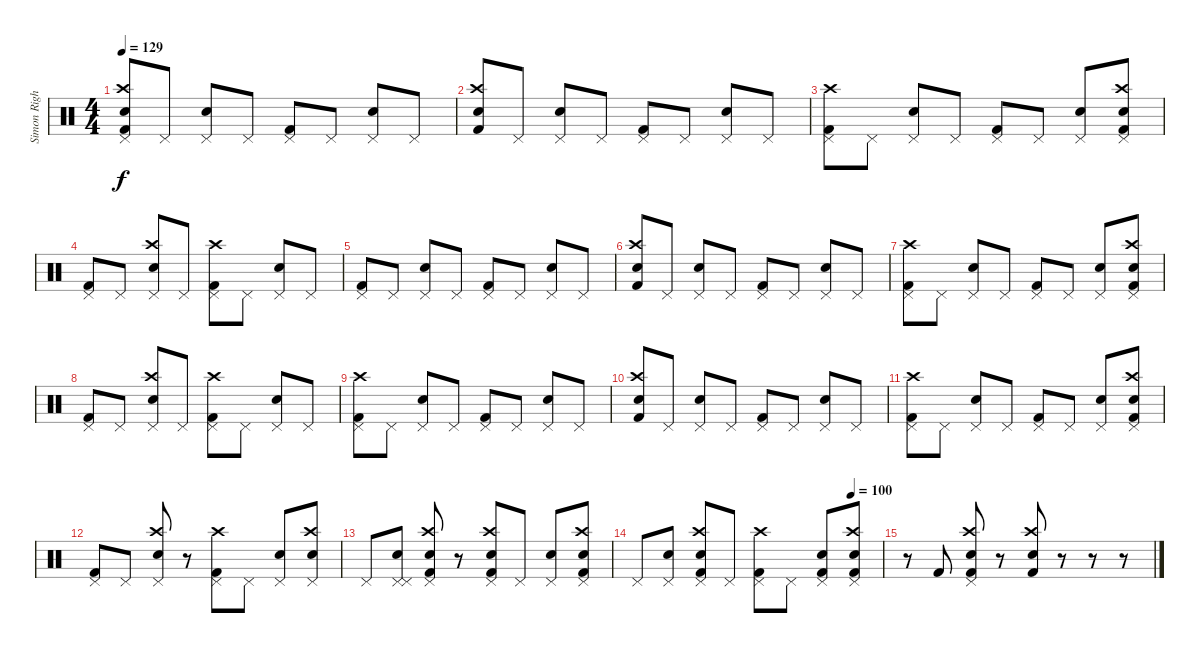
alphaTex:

\track ("Simon Right" "Simon Righ") {instrument percussion}
\staff {score}
\articulation defaults
\ts (4 4)
\tempo 129
\clef neutral
\ks c
("Snare (hit) 2" "Crash high (hit)" "Pedal Hi-Hat (hit)" "Kick (hit) 2").8{dy f} "Pedal Hi-Hat (hit)".8 ("Snare (hit) 2" "Pedal Hi-Hat (hit)").8 "Pedal Hi-Hat (hit)".8 ("Pedal Hi-Hat (hit)" "Kick (hit) 2").8 "Pedal Hi-Hat (hit)".8 ("Snare (hit) 2" "Pedal Hi-Hat (hit)").8 "Pedal Hi-Hat (hit)".8 |
("Crash high (hit)" "Snare (hit) 2" "Kick (hit) 2").8 "Pedal Hi-Hat (hit)".8 ("Snare (hit) 2" "Pedal Hi-Hat (hit)").8 "Pedal Hi-Hat (hit)".8 ("Kick (hit) 2" "Pedal Hi-Hat (hit)").8 "Pedal Hi-Hat (hit)".8 ("Pedal Hi-Hat (hit)" "Snare (hit) 2").8 "Pedal Hi-Hat (hit)".8 |
("Crash high (hit)" "Pedal Hi-Hat (hit)" "Kick (hit) 2").8 "Pedal Hi-Hat (hit)".8 ("Snare (hit) 2" "Pedal Hi-Hat (hit)").8 "Pedal Hi-Hat (hit)".8 ("Pedal Hi-Hat (hit)" "Kick (hit) 2").8 "Pedal Hi-Hat (hit)".8 ("Snare (hit) 2" "Pedal Hi-Hat (hit)").8 ("Kick (hit) 2" "Snare (hit) 2" "Crash high (hit)" "Pedal Hi-Hat (hit)").8 |
("Pedal Hi-Hat (hit)" "Kick (hit) 2").8 "Pedal Hi-Hat (hit)".8 ("Crash high (hit)" "Snare (hit) 2" "Pedal Hi-Hat (hit)").8 "Pedal Hi-Hat (hit)".8 ("Crash high (hit)" "Pedal Hi-Hat (hit)" "Kick (hit) 2").8 "Pedal Hi-Hat (hit)".8 ("Snare (hit) 2" "Pedal Hi-Hat (hit)").8 "Pedal Hi-Hat (hit)".8 |
("Pedal Hi-Hat (hit)" "Kick (hit) 2").8 "Pedal Hi-Hat (hit)".8 ("Snare (hit) 2" "Pedal Hi-Hat (hit)").8 "Pedal Hi-Hat (hit)".8 ("Pedal Hi-Hat (hit)" "Kick (hit) 2").8 "Pedal Hi-Hat (hit)".8 ("Snare (hit) 2" "Pedal Hi-Hat (hit)").8 "Pedal Hi-Hat (hit)".8 |
("Crash high (hit)" "Snare (hit) 2" "Kick (hit) 2").8 "Pedal Hi-Hat (hit)".8 ("Snare (hit) 2" "Pedal Hi-Hat (hit)").8 "Pedal Hi-Hat (hit)".8 ("Kick (hit) 2" "Pedal Hi-Hat (hit)").8 "Pedal Hi-Hat (hit)".8 ("Pedal Hi-Hat (hit)" "Snare (hit) 2").8 "Pedal Hi-Hat (hit)".8 |
("Crash high (hit)" "Pedal Hi-Hat (hit)" "Kick (hit) 2").8 "Pedal Hi-Hat (hit)".8 ("Snare (hit) 2" "Pedal Hi-Hat (hit)").8 "Pedal Hi-Hat (hit)".8 ("Pedal Hi-Hat (hit)" "Kick (hit) 2").8 "Pedal Hi-Hat (hit)".8 ("Snare (hit) 2" "Pedal Hi-Hat (hit)").8 ("Kick (hit) 2" "Snare (hit) 2" "Crash high (hit)" "Pedal Hi-Hat (hit)").8 |
("Pedal Hi-Hat (hit)" "Kick (hit) 2").8 "Pedal Hi-Hat (hit)".8 ("Crash high (hit)" "Snare (hit) 2" "Pedal Hi-Hat (hit)").8 "Pedal Hi-Hat (hit)".8 ("Crash high (hit)" "Pedal Hi-Hat (hit)" "Kick (hit) 2").8 "Pedal Hi-Hat (hit)".8 ("Snare (hit) 2" "Pedal Hi-Hat (hit)").8 "Pedal Hi-Hat (hit)".8 |
("Crash high (hit)" "Pedal Hi-Hat (hit)" "Kick (hit) 2").8 "Pedal Hi-Hat (hit)".8 ("Snare (hit) 2" "Pedal Hi-Hat (hit)").8 "Pedal Hi-Hat (hit)".8 ("Pedal Hi-Hat (hit)" "Kick (hit) 2").8 "Pedal Hi-Hat (hit)".8 ("Snare (hit) 2" "Pedal Hi-Hat (hit)").8 "Pedal Hi-Hat (hit)".8 |
("Crash high (hit)" "Snare (hit) 2" "Kick (hit) 2").8 "Pedal Hi-Hat (hit)".8 ("Snare (hit) 2" "Pedal Hi-Hat (hit)").8 "Pedal Hi-Hat (hit)".8 ("Kick (hit) 2" "Pedal Hi-Hat (hit)").8 "Pedal Hi-Hat (hit)".8 ("Pedal Hi-Hat (hit)" "Snare (hit) 2").8 "Pedal Hi-Hat (hit)".8 |
("Crash high (hit)" "Pedal Hi-Hat (hit)" "Kick (hit) 2").8 "Pedal Hi-Hat (hit)".8 ("Snare (hit) 2" "Pedal Hi-Hat (hit)").8 "Pedal Hi-Hat (hit)".8 ("Pedal Hi-Hat (hit)" "Kick (hit) 2").8 "Pedal Hi-Hat (hit)".8 ("Snare (hit) 2" "Pedal Hi-Hat (hit)").8 ("Kick (hit) 2" "Snare (hit) 2" "Crash high (hit)" "Pedal Hi-Hat (hit)").8 |
("Pedal Hi-Hat (hit)" "Kick (hit) 2").8 "Pedal Hi-Hat (hit)".8 ("Crash high (hit)" "Snare (hit) 2" "Pedal Hi-Hat (hit)").8 r.8 ("Crash high (hit)" "Pedal Hi-Hat (hit)" "Kick (hit) 2").8 "Pedal Hi-Hat (hit)".8 ("Snare (hit) 2" "Pedal Hi-Hat (hit)").8 ("Crash high (hit)" "Snare (hit) 2" "Pedal Hi-Hat (hit)").8 |
"Pedal Hi-Hat (hit)".8 ("Pedal Hi-Hat (hit)" "Snare (hit) 2" "Pedal Hi-Hat (hit)").8 ("Crash high (hit)" "Snare (hit) 2" "Kick (hit) 2" "Pedal Hi-Hat (hit)").8 r.8 ("Snare (hit) 2" "Crash high (hit)" "Kick (hit) 2" "Pedal Hi-Hat (hit)").8 "Pedal Hi-Hat (hit)".8 ("Pedal Hi-Hat (hit)" "Snare (hit) 2").8 ("Kick (hit) 2" "Snare (hit) 2" "Crash high (hit)" "Pedal Hi-Hat (hit)").8 |
\tempo (100 0.875)
"Pedal Hi-Hat (hit)".8 ("Snare (hit) 2" "Pedal Hi-Hat (hit)").8 ("Kick (hit) 2" "Crash high (hit)" "Snare (hit) 2" "Pedal Hi-Hat (hit)").8 "Pedal Hi-Hat (hit)".8 ("Crash high (hit)" "Pedal Hi-Hat (hit)" "Kick (hit) 2").8 "Pedal Hi-Hat (hit)".8 ("Kick (hit) 2" "Snare (hit) 2" "Pedal Hi-Hat (hit)").8 ("Snare (hit) 2" "Kick (hit) 2" "Crash high (hit)" "Pedal Hi-Hat (hit)").8 |
r.8 "Kick (hit) 2".8 ("Kick (hit) 2" "Snare (hit) 2" "Pedal Hi-Hat (hit)" "Crash high (hit)").8 r.8 ("Crash high (hit)" "Snare (hit) 2" "Kick (hit) 2").8 r.8 r.8 r.8
